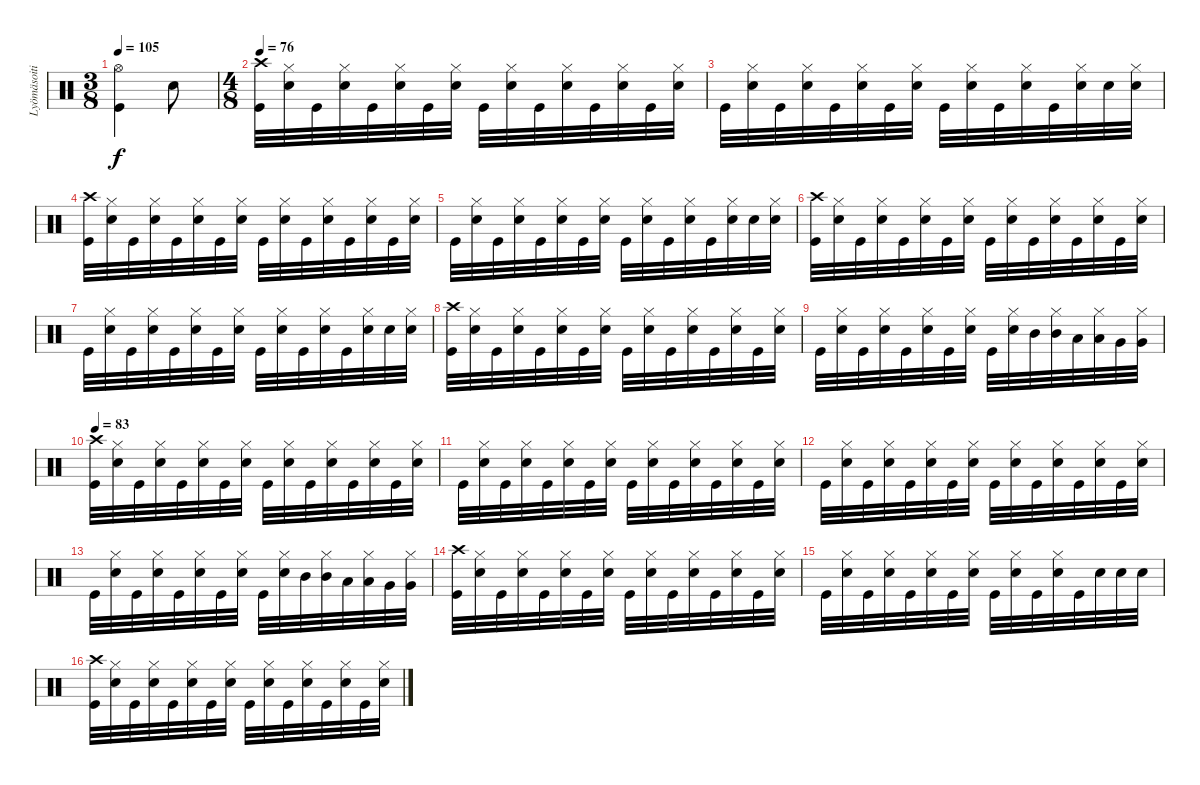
\track ("Lyömäsoitin" "Lyömäsoiti") {instrument percussion}
\staff {score}
\articulation defaults
\ts (3 8)
\tempo 105
\clef neutral
\ks c
("Kick (hit)" "Hi-Hat (open)").4{dy f} "Snare (hit) 2".8 |
\ts (4 8)
\tempo 76
("Kick (hit)" "Crash high (hit)").32 ("Snare (hit) 2" "Hi-Hat (closed)").32 "Kick (hit)".32 ("Snare (hit) 2" "Hi-Hat (closed)").32 "Kick (hit)".32 ("Snare (hit) 2" "Hi-Hat (closed)").32 "Kick (hit)".32 ("Snare (hit) 2" "Hi-Hat (closed)").32 "Kick (hit)".32 ("Snare (hit) 2" "Hi-Hat (closed)").32 "Kick (hit)".32 ("Snare (hit) 2" "Hi-Hat (closed)").32 "Kick (hit)".32 ("Snare (hit) 2" "Hi-Hat (closed)").32 "Kick (hit)".32 ("Snare (hit) 2" "Hi-Hat (closed)").32 |
"Kick (hit)".32 ("Snare (hit) 2" "Hi-Hat (closed)").32 "Kick (hit)".32 ("Snare (hit) 2" "Hi-Hat (closed)").32 "Kick (hit)".32 ("Snare (hit) 2" "Hi-Hat (closed)").32 "Kick (hit)".32 ("Snare (hit) 2" "Hi-Hat (closed)").32 "Kick (hit)".32 ("Snare (hit) 2" "Hi-Hat (closed)").32 "Kick (hit)".32 ("Snare (hit) 2" "Hi-Hat (closed)").32 "Kick (hit)".32 ("Snare (hit) 2" "Hi-Hat (closed)").32 "Snare (hit) 2".32 ("Snare (hit) 2" "Hi-Hat (closed)").32 |
("Kick (hit)" "Crash high (hit)").32 ("Snare (hit) 2" "Hi-Hat (closed)").32 "Kick (hit)".32 ("Snare (hit) 2" "Hi-Hat (closed)").32 "Kick (hit)".32 ("Snare (hit) 2" "Hi-Hat (closed)").32 "Kick (hit)".32 ("Snare (hit) 2" "Hi-Hat (closed)").32 "Kick (hit)".32 ("Snare (hit) 2" "Hi-Hat (closed)").32 "Kick (hit)".32 ("Snare (hit) 2" "Hi-Hat (closed)").32 "Kick (hit)".32 ("Snare (hit) 2" "Hi-Hat (closed)").32 "Kick (hit)".32 ("Snare (hit) 2" "Hi-Hat (closed)").32 |
"Kick (hit)".32 ("Snare (hit) 2" "Hi-Hat (closed)").32 "Kick (hit)".32 ("Snare (hit) 2" "Hi-Hat (closed)").32 "Kick (hit)".32 ("Snare (hit) 2" "Hi-Hat (closed)").32 "Kick (hit)".32 ("Snare (hit) 2" "Hi-Hat (closed)").32 "Kick (hit)".32 ("Snare (hit) 2" "Hi-Hat (closed)").32 "Kick (hit)".32 ("Snare (hit) 2" "Hi-Hat (closed)").32 "Kick (hit)".32 ("Snare (hit) 2" "Hi-Hat (closed)").32 "Snare (hit) 2".32 ("Snare (hit) 2" "Hi-Hat (closed)").32 |
("Kick (hit)" "Crash high (hit)").32 ("Snare (hit) 2" "Hi-Hat (closed)").32 "Kick (hit)".32 ("Snare (hit) 2" "Hi-Hat (closed)").32 "Kick (hit)".32 ("Snare (hit) 2" "Hi-Hat (closed)").32 "Kick (hit)".32 ("Snare (hit) 2" "Hi-Hat (closed)").32 "Kick (hit)".32 ("Snare (hit) 2" "Hi-Hat (closed)").32 "Kick (hit)".32 ("Snare (hit) 2" "Hi-Hat (closed)").32 "Kick (hit)".32 ("Snare (hit) 2" "Hi-Hat (closed)").32 "Kick (hit)".32 ("Snare (hit) 2" "Hi-Hat (closed)").32 |
"Kick (hit)".32 ("Snare (hit) 2" "Hi-Hat (closed)").32 "Kick (hit)".32 ("Snare (hit) 2" "Hi-Hat (closed)").32 "Kick (hit)".32 ("Snare (hit) 2" "Hi-Hat (closed)").32 "Kick (hit)".32 ("Snare (hit) 2" "Hi-Hat (closed)").32 "Kick (hit)".32 ("Snare (hit) 2" "Hi-Hat (closed)").32 "Kick (hit)".32 ("Snare (hit) 2" "Hi-Hat (closed)").32 "Kick (hit)".32 ("Snare (hit) 2" "Hi-Hat (closed)").32 "Snare (hit) 2".32 ("Snare (hit) 2" "Hi-Hat (closed)").32 |
("Kick (hit)" "Crash high (hit)").32 ("Snare (hit) 2" "Hi-Hat (closed)").32 "Kick (hit)".32 ("Snare (hit) 2" "Hi-Hat (closed)").32 "Kick (hit)".32 ("Snare (hit) 2" "Hi-Hat (closed)").32 "Kick (hit)".32 ("Snare (hit) 2" "Hi-Hat (closed)").32 "Kick (hit)".32 ("Snare (hit) 2" "Hi-Hat (closed)").32 "Kick (hit)".32 ("Snare (hit) 2" "Hi-Hat (closed)").32 "Kick (hit)".32 ("Snare (hit) 2" "Hi-Hat (closed)").32 "Kick (hit)".32 ("Snare (hit) 2" "Hi-Hat (closed)").32 |
"Kick (hit)".32 ("Snare (hit) 2" "Hi-Hat (closed)").32 "Kick (hit)".32 ("Snare (hit) 2" "Hi-Hat (closed)").32 "Kick (hit)".32 ("Snare (hit) 2" "Hi-Hat (closed)").32 "Kick (hit)".32 ("Snare (hit) 2" "Hi-Hat (closed)").32 "Kick (hit)".32 ("Snare (hit) 2" "Hi-Hat (closed)").32 "Mid Tom (hit)".32 ("Mid Tom (hit)" "Hi-Hat (closed)").32 "Low Tom (hit)".32 ("Low Tom (hit)" "Hi-Hat (closed)").32 "Very Low Tom (hit)".32 ("Very Low Tom (hit)" "Hi-Hat (closed)").32 |
\tempo 83
("Kick (hit)" "Crash high (hit)").32 ("Snare (hit) 2" "Hi-Hat (closed)").32 "Kick (hit)".32 ("Snare (hit) 2" "Hi-Hat (closed)").32 "Kick (hit)".32 ("Snare (hit) 2" "Hi-Hat (closed)").32 "Kick (hit)".32 ("Snare (hit) 2" "Hi-Hat (closed)").32 "Kick (hit)".32 ("Snare (hit) 2" "Hi-Hat (closed)").32 "Kick (hit)".32 ("Snare (hit) 2" "Hi-Hat (closed)").32 "Kick (hit)".32 ("Snare (hit) 2" "Hi-Hat (closed)").32 "Kick (hit)".32 ("Snare (hit) 2" "Hi-Hat (closed)").32 |
"Kick (hit)".32 ("Snare (hit) 2" "Hi-Hat (closed)").32 "Kick (hit)".32 ("Snare (hit) 2" "Hi-Hat (closed)").32 "Kick (hit)".32 ("Snare (hit) 2" "Hi-Hat (closed)").32 "Kick (hit)".32 ("Snare (hit) 2" "Hi-Hat (closed)").32 "Kick (hit)".32 ("Snare (hit) 2" "Hi-Hat (closed)").32 "Kick (hit)".32 ("Snare (hit) 2" "Hi-Hat (closed)").32 "Kick (hit)".32 ("Snare (hit) 2" "Hi-Hat (closed)").32 "Kick (hit)".32 ("Snare (hit) 2" "Hi-Hat (closed)").32 |
"Kick (hit)".32 ("Snare (hit) 2" "Hi-Hat (closed)").32 "Kick (hit)".32 ("Snare (hit) 2" "Hi-Hat (closed)").32 "Kick (hit)".32 ("Snare (hit) 2" "Hi-Hat (closed)").32 "Kick (hit)".32 ("Snare (hit) 2" "Hi-Hat (closed)").32 "Kick (hit)".32 ("Snare (hit) 2" "Hi-Hat (closed)").32 "Kick (hit)".32 ("Snare (hit) 2" "Hi-Hat (closed)").32 "Kick (hit)".32 ("Snare (hit) 2" "Hi-Hat (closed)").32 "Kick (hit)".32 ("Snare (hit) 2" "Hi-Hat (closed)").32 |
"Kick (hit)".32 ("Snare (hit) 2" "Hi-Hat (closed)").32 "Kick (hit)".32 ("Snare (hit) 2" "Hi-Hat (closed)").32 "Kick (hit)".32 ("Snare (hit) 2" "Hi-Hat (closed)").32 "Kick (hit)".32 ("Snare (hit) 2" "Hi-Hat (closed)").32 "Kick (hit)".32 ("Snare (hit) 2" "Hi-Hat (closed)").32 "Mid Tom (hit)".32 ("Mid Tom (hit)" "Hi-Hat (closed)").32 "Low Tom (hit)".32 ("Low Tom (hit)" "Hi-Hat (closed)").32 "Very Low Tom (hit)".32 ("Very Low Tom (hit)" "Hi-Hat (closed)").32 |
("Kick (hit)" "Crash high (hit)").32 ("Snare (hit) 2" "Hi-Hat (closed)").32 "Kick (hit)".32 ("Snare (hit) 2" "Hi-Hat (closed)").32 "Kick (hit)".32 ("Snare (hit) 2" "Hi-Hat (closed)").32 "Kick (hit)".32 ("Snare (hit) 2" "Hi-Hat (closed)").32 "Kick (hit)".32 ("Snare (hit) 2" "Hi-Hat (closed)").32 "Kick (hit)".32 ("Snare (hit) 2" "Hi-Hat (closed)").32 "Kick (hit)".32 ("Snare (hit) 2" "Hi-Hat (closed)").32 "Kick (hit)".32 ("Snare (hit) 2" "Hi-Hat (closed)").32 |
"Kick (hit)".32 ("Snare (hit) 2" "Hi-Hat (closed)").32 "Kick (hit)".32 ("Snare (hit) 2" "Hi-Hat (closed)").32 "Kick (hit)".32 ("Snare (hit) 2" "Hi-Hat (closed)").32 "Kick (hit)".32 ("Snare (hit) 2" "Hi-Hat (closed)").32 "Kick (hit)".32 ("Snare (hit) 2" "Hi-Hat (closed)").32 "Kick (hit)".32 ("Snare (hit) 2" "Hi-Hat (closed)").32 "Kick (hit)".32 "Snare (hit) 2".32 "Snare (hit) 2".32 "Snare (hit) 2".32 |
("Kick (hit)" "Crash high (hit)").32 ("Snare (hit) 2" "Hi-Hat (closed)").32 "Kick (hit)".32 ("Snare (hit) 2" "Hi-Hat (closed)").32 "Kick (hit)".32 ("Snare (hit) 2" "Hi-Hat (closed)").32 "Kick (hit)".32 ("Snare (hit) 2" "Hi-Hat (closed)").32 "Kick (hit)".32 ("Snare (hit) 2" "Hi-Hat (closed)").32 "Kick (hit)".32 ("Snare (hit) 2" "Hi-Hat (closed)").32 "Kick (hit)".32 ("Snare (hit) 2" "Hi-Hat (closed)").32 "Kick (hit)".32 ("Snare (hit) 2" "Hi-Hat (closed)").32
